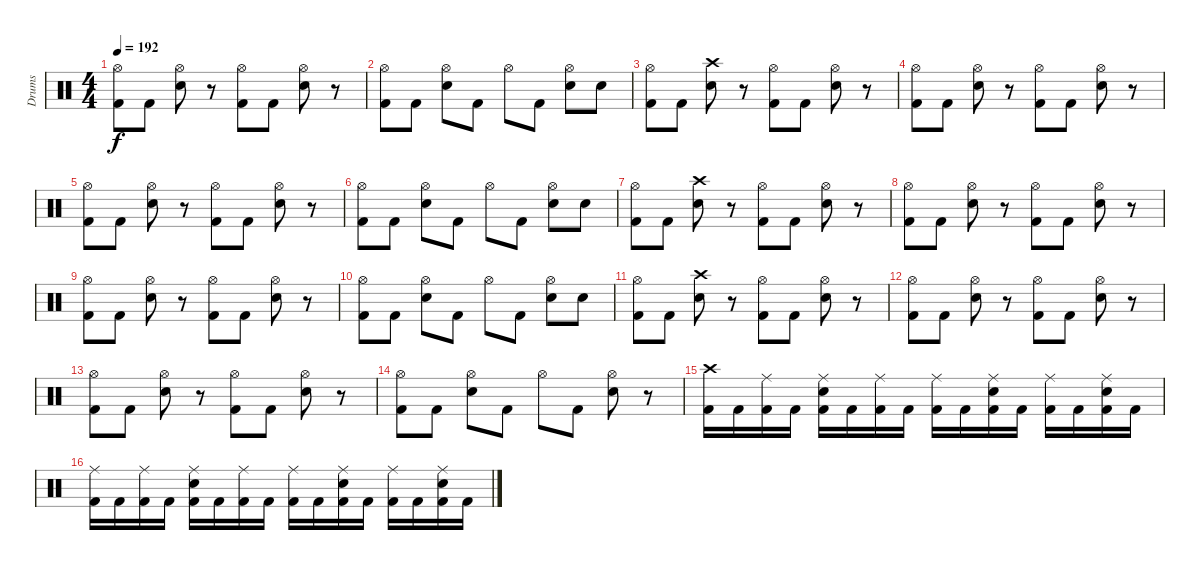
\track ("Drums" "Drums") {instrument percussion}
\staff {score}
\articulation defaults
\ts (4 4)
\tempo 192
\clef neutral
\ks c
("Hi-Hat (open)" "Kick (hit) 2").8{dy f} "Kick (hit) 2".8 ("Hi-Hat (open)" "Snare (hit) 2").8 r.8 ("Hi-Hat (open)" "Kick (hit) 2").8 "Kick (hit) 2".8 ("Hi-Hat (open)" "Snare (hit) 2").8 r.8 |
("Hi-Hat (open)" "Kick (hit) 2").8 "Kick (hit) 2".8 ("Hi-Hat (open)" "Snare (hit) 2").8 "Kick (hit) 2".8 "Hi-Hat (open)".8 "Kick (hit) 2".8 ("Hi-Hat (open)" "Snare (hit) 2").8 "Snare (hit) 2".8 |
("Hi-Hat (open)" "Kick (hit) 2").8 "Kick (hit) 2".8 ("Crash high (hit)" "Snare (hit) 2").8 r.8 ("Hi-Hat (open)" "Kick (hit) 2").8 "Kick (hit) 2".8 ("Hi-Hat (open)" "Snare (hit) 2").8 r.8 |
("Hi-Hat (open)" "Kick (hit) 2").8 "Kick (hit) 2".8 ("Hi-Hat (open)" "Snare (hit) 2").8 r.8 ("Hi-Hat (open)" "Kick (hit) 2").8 "Kick (hit) 2".8 ("Hi-Hat (open)" "Snare (hit) 2").8 r.8 |
("Hi-Hat (open)" "Kick (hit) 2").8 "Kick (hit) 2".8 ("Hi-Hat (open)" "Snare (hit) 2").8 r.8 ("Hi-Hat (open)" "Kick (hit) 2").8 "Kick (hit) 2".8 ("Hi-Hat (open)" "Snare (hit) 2").8 r.8 |
("Hi-Hat (open)" "Kick (hit) 2").8 "Kick (hit) 2".8 ("Hi-Hat (open)" "Snare (hit) 2").8 "Kick (hit) 2".8 "Hi-Hat (open)".8 "Kick (hit) 2".8 ("Hi-Hat (open)" "Snare (hit) 2").8 "Snare (hit) 2".8 |
("Hi-Hat (open)" "Kick (hit) 2").8 "Kick (hit) 2".8 ("Crash high (hit)" "Snare (hit) 2").8 r.8 ("Hi-Hat (open)" "Kick (hit) 2").8 "Kick (hit) 2".8 ("Hi-Hat (open)" "Snare (hit) 2").8 r.8 |
("Hi-Hat (open)" "Kick (hit) 2").8 "Kick (hit) 2".8 ("Hi-Hat (open)" "Snare (hit) 2").8 r.8 ("Hi-Hat (open)" "Kick (hit) 2").8 "Kick (hit) 2".8 ("Hi-Hat (open)" "Snare (hit) 2").8 r.8 |
("Hi-Hat (open)" "Kick (hit) 2").8 "Kick (hit) 2".8 ("Hi-Hat (open)" "Snare (hit) 2").8 r.8 ("Hi-Hat (open)" "Kick (hit) 2").8 "Kick (hit) 2".8 ("Hi-Hat (open)" "Snare (hit) 2").8 r.8 |
("Hi-Hat (open)" "Kick (hit) 2").8 "Kick (hit) 2".8 ("Hi-Hat (open)" "Snare (hit) 2").8 "Kick (hit) 2".8 "Hi-Hat (open)".8 "Kick (hit) 2".8 ("Hi-Hat (open)" "Snare (hit) 2").8 "Snare (hit) 2".8 |
("Hi-Hat (open)" "Kick (hit) 2").8 "Kick (hit) 2".8 ("Crash high (hit)" "Snare (hit) 2").8 r.8 ("Hi-Hat (open)" "Kick (hit) 2").8 "Kick (hit) 2".8 ("Hi-Hat (open)" "Snare (hit) 2").8 r.8 |
("Hi-Hat (open)" "Kick (hit) 2").8 "Kick (hit) 2".8 ("Hi-Hat (open)" "Snare (hit) 2").8 r.8 ("Hi-Hat (open)" "Kick (hit) 2").8 "Kick (hit) 2".8 ("Hi-Hat (open)" "Snare (hit) 2").8 r.8 |
("Hi-Hat (open)" "Kick (hit) 2").8 "Kick (hit) 2".8 ("Hi-Hat (open)" "Snare (hit) 2").8 r.8 ("Hi-Hat (open)" "Kick (hit) 2").8 "Kick (hit) 2".8 ("Hi-Hat (open)" "Snare (hit) 2").8 r.8 |
("Hi-Hat (open)" "Kick (hit) 2").8 "Kick (hit) 2".8 ("Hi-Hat (open)" "Snare (hit) 2").8 "Kick (hit) 2".8 "Hi-Hat (open)".8 "Kick (hit) 2".8 ("Hi-Hat (open)" "Snare (hit) 2").8 r.8 |
("Crash high (hit)" "Kick (hit) 2").16 "Kick (hit) 2".16 ("Ride (middle)" "Kick (hit) 2").16 "Kick (hit) 2".16 ("Ride (middle)" "Snare (hit) 2" "Kick (hit) 2").16 "Kick (hit) 2".16 ("Ride (middle)" "Kick (hit) 2").16 "Kick (hit) 2".16 ("Ride (middle)" "Kick (hit) 2").16 "Kick (hit) 2".16 ("Ride (middle)" "Snare (hit) 2" "Kick (hit) 2").16 "Kick (hit) 2".16 ("Ride (middle)" "Kick (hit) 2").16 "Kick (hit) 2".16 ("Ride (middle)" "Snare (hit) 2" "Kick (hit) 2").16 "Kick (hit) 2".16 |
("Ride (middle)" "Kick (hit) 2").16 "Kick (hit) 2".16 ("Ride (middle)" "Kick (hit) 2").16 "Kick (hit) 2".16 ("Ride (middle)" "Snare (hit) 2" "Kick (hit) 2").16 "Kick (hit) 2".16 ("Ride (middle)" "Kick (hit) 2").16 "Kick (hit) 2".16 ("Ride (middle)" "Kick (hit) 2").16 "Kick (hit) 2".16 ("Ride (middle)" "Snare (hit) 2" "Kick (hit) 2").16 "Kick (hit) 2".16 ("Ride (middle)" "Kick (hit) 2").16 "Kick (hit) 2".16 ("Ride (middle)" "Snare (hit) 2" "Kick (hit) 2").16 "Kick (hit) 2".16
